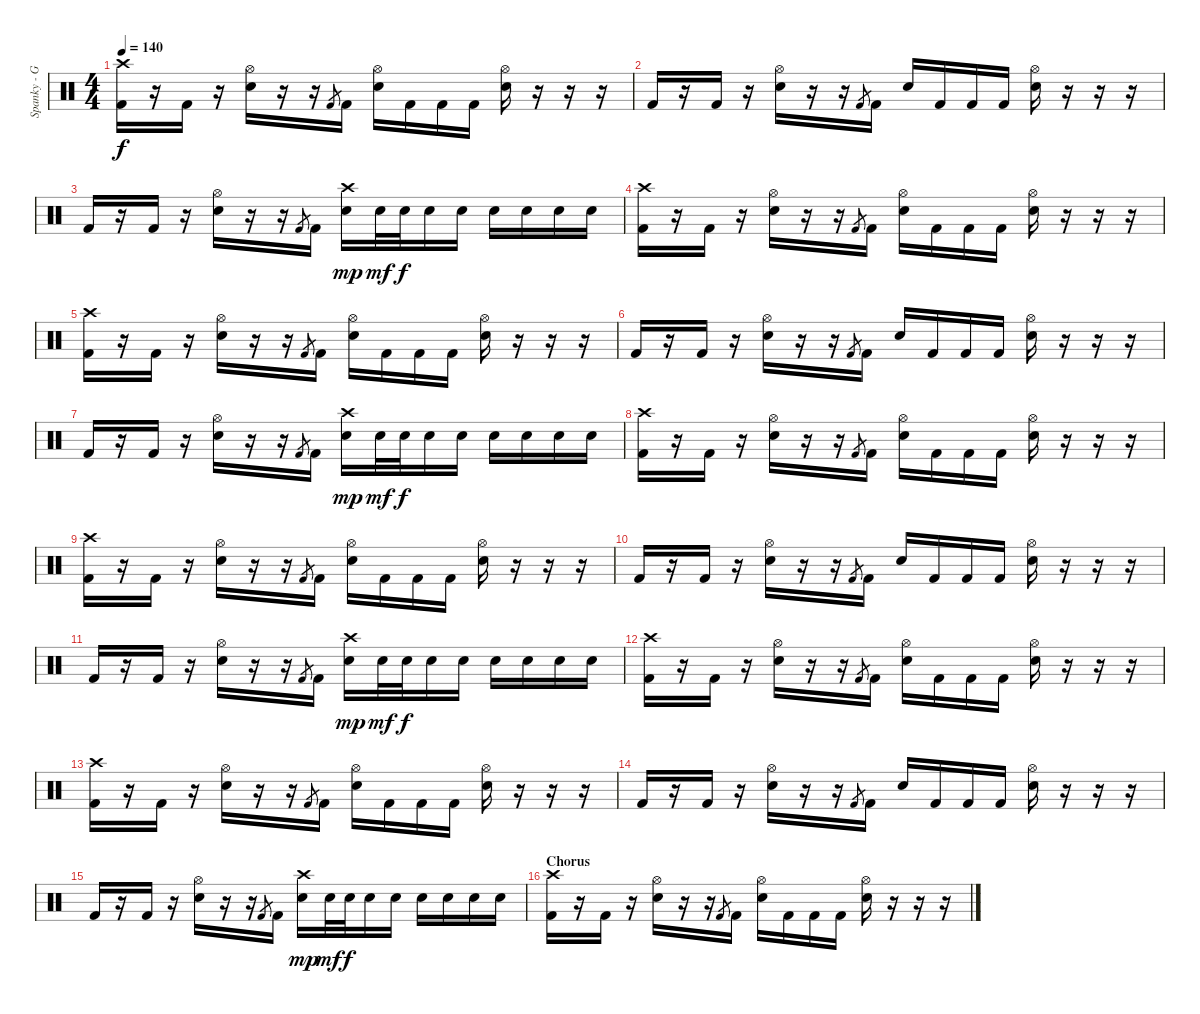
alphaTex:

\track ("Spanky - G (Ex-drummer)" "Spanky - G") {instrument percussion}
\staff {score}
\articulation defaults
\ts (4 4)
\tempo 140
\clef neutral
\ks c
("Crash high (hit)" "Kick (hit) 2").16{dy f} r.16 "Kick (hit) 2".16 r.16 ("Hi-Hat (open)" "Electric Snare (hit)").16 r.16 r.16 "Kick (hit) 2".8{gr} "Kick (hit) 2".16 ("Hi-Hat (open)" "Electric Snare (hit)").16 "Kick (hit) 2".16 "Kick (hit) 2".16 "Kick (hit) 2".16 ("Hi-Hat (open)" "Electric Snare (hit)").16 r.16 r.16 r.16 |
"Kick (hit) 2".16 r.16 "Kick (hit) 2".16 r.16 ("Hi-Hat (open)" "Electric Snare (hit)").16 r.16 r.16 "Kick (hit) 2".8{gr} "Kick (hit) 2".16 "Electric Snare (hit)".16 "Kick (hit) 2".16 "Kick (hit) 2".16 "Kick (hit) 2".16 ("Hi-Hat (open)" "Electric Snare (hit)").16 r.16 r.16 r.16 |
"Kick (hit) 2".16 r.16 "Kick (hit) 2".16 r.16 ("Hi-Hat (open)" "Electric Snare (hit)").16 r.16 r.16 "Kick (hit) 2".8{gr} "Kick (hit) 2".16 ("Crash high (hit)" "Electric Snare (hit)").16{dy mp} "Electric Snare (hit)".32{dy mf} "Electric Snare (hit)".32{dy f} "Electric Snare (hit)".16 "Electric Snare (hit)".16 "Electric Snare (hit)".16 "Electric Snare (hit)".16 "Electric Snare (hit)".16 "Electric Snare (hit)".16 |
("Crash high (hit)" "Kick (hit) 2").16 r.16 "Kick (hit) 2".16 r.16 ("Hi-Hat (open)" "Electric Snare (hit)").16 r.16 r.16 "Kick (hit) 2".8{gr} "Kick (hit) 2".16 ("Hi-Hat (open)" "Electric Snare (hit)").16 "Kick (hit) 2".16 "Kick (hit) 2".16 "Kick (hit) 2".16 ("Hi-Hat (open)" "Electric Snare (hit)").16 r.16 r.16 r.16 |
("Crash high (hit)" "Kick (hit) 2").16 r.16 "Kick (hit) 2".16 r.16 ("Hi-Hat (open)" "Electric Snare (hit)").16 r.16 r.16 "Kick (hit) 2".8{gr} "Kick (hit) 2".16 ("Hi-Hat (open)" "Electric Snare (hit)").16 "Kick (hit) 2".16 "Kick (hit) 2".16 "Kick (hit) 2".16 ("Hi-Hat (open)" "Electric Snare (hit)").16 r.16 r.16 r.16 |
"Kick (hit) 2".16 r.16 "Kick (hit) 2".16 r.16 ("Hi-Hat (open)" "Electric Snare (hit)").16 r.16 r.16 "Kick (hit) 2".8{gr} "Kick (hit) 2".16 "Electric Snare (hit)".16 "Kick (hit) 2".16 "Kick (hit) 2".16 "Kick (hit) 2".16 ("Hi-Hat (open)" "Electric Snare (hit)").16 r.16 r.16 r.16 |
"Kick (hit) 2".16 r.16 "Kick (hit) 2".16 r.16 ("Hi-Hat (open)" "Electric Snare (hit)").16 r.16 r.16 "Kick (hit) 2".8{gr} "Kick (hit) 2".16 ("Crash high (hit)" "Electric Snare (hit)").16{dy mp} "Electric Snare (hit)".32{dy mf} "Electric Snare (hit)".32{dy f} "Electric Snare (hit)".16 "Electric Snare (hit)".16 "Electric Snare (hit)".16 "Electric Snare (hit)".16 "Electric Snare (hit)".16 "Electric Snare (hit)".16 |
("Crash high (hit)" "Kick (hit) 2").16 r.16 "Kick (hit) 2".16 r.16 ("Hi-Hat (open)" "Electric Snare (hit)").16 r.16 r.16 "Kick (hit) 2".8{gr} "Kick (hit) 2".16 ("Hi-Hat (open)" "Electric Snare (hit)").16 "Kick (hit) 2".16 "Kick (hit) 2".16 "Kick (hit) 2".16 ("Hi-Hat (open)" "Electric Snare (hit)").16 r.16 r.16 r.16 |
("Crash high (hit)" "Kick (hit) 2").16 r.16 "Kick (hit) 2".16 r.16 ("Hi-Hat (open)" "Electric Snare (hit)").16 r.16 r.16 "Kick (hit) 2".8{gr} "Kick (hit) 2".16 ("Hi-Hat (open)" "Electric Snare (hit)").16 "Kick (hit) 2".16 "Kick (hit) 2".16 "Kick (hit) 2".16 ("Hi-Hat (open)" "Electric Snare (hit)").16 r.16 r.16 r.16 |
"Kick (hit) 2".16 r.16 "Kick (hit) 2".16 r.16 ("Hi-Hat (open)" "Electric Snare (hit)").16 r.16 r.16 "Kick (hit) 2".8{gr} "Kick (hit) 2".16 "Electric Snare (hit)".16 "Kick (hit) 2".16 "Kick (hit) 2".16 "Kick (hit) 2".16 ("Hi-Hat (open)" "Electric Snare (hit)").16 r.16 r.16 r.16 |
"Kick (hit) 2".16 r.16 "Kick (hit) 2".16 r.16 ("Hi-Hat (open)" "Electric Snare (hit)").16 r.16 r.16 "Kick (hit) 2".8{gr} "Kick (hit) 2".16 ("Crash high (hit)" "Electric Snare (hit)").16{dy mp} "Electric Snare (hit)".32{dy mf} "Electric Snare (hit)".32{dy f} "Electric Snare (hit)".16 "Electric Snare (hit)".16 "Electric Snare (hit)".16 "Electric Snare (hit)".16 "Electric Snare (hit)".16 "Electric Snare (hit)".16 |
("Crash high (hit)" "Kick (hit) 2").16 r.16 "Kick (hit) 2".16 r.16 ("Hi-Hat (open)" "Electric Snare (hit)").16 r.16 r.16 "Kick (hit) 2".8{gr} "Kick (hit) 2".16 ("Hi-Hat (open)" "Electric Snare (hit)").16 "Kick (hit) 2".16 "Kick (hit) 2".16 "Kick (hit) 2".16 ("Hi-Hat (open)" "Electric Snare (hit)").16 r.16 r.16 r.16 |
("Crash high (hit)" "Kick (hit) 2").16 r.16 "Kick (hit) 2".16 r.16 ("Hi-Hat (open)" "Electric Snare (hit)").16 r.16 r.16 "Kick (hit) 2".8{gr} "Kick (hit) 2".16 ("Hi-Hat (open)" "Electric Snare (hit)").16 "Kick (hit) 2".16 "Kick (hit) 2".16 "Kick (hit) 2".16 ("Hi-Hat (open)" "Electric Snare (hit)").16 r.16 r.16 r.16 |
"Kick (hit) 2".16 r.16 "Kick (hit) 2".16 r.16 ("Hi-Hat (open)" "Electric Snare (hit)").16 r.16 r.16 "Kick (hit) 2".8{gr} "Kick (hit) 2".16 "Electric Snare (hit)".16 "Kick (hit) 2".16 "Kick (hit) 2".16 "Kick (hit) 2".16 ("Hi-Hat (open)" "Electric Snare (hit)").16 r.16 r.16 r.16 |
"Kick (hit) 2".16 r.16 "Kick (hit) 2".16 r.16 ("Hi-Hat (open)" "Electric Snare (hit)").16 r.16 r.16 "Kick (hit) 2".8{gr} "Kick (hit) 2".16 ("Crash high (hit)" "Electric Snare (hit)").16{dy mp} "Electric Snare (hit)".32{dy mf} "Electric Snare (hit)".32{dy f} "Electric Snare (hit)".16 "Electric Snare (hit)".16 "Electric Snare (hit)".16 "Electric Snare (hit)".16 "Electric Snare (hit)".16 "Electric Snare (hit)".16 |
\section ("" "Chorus")
("Crash high (hit)" "Kick (hit) 2").16 r.16 "Kick (hit) 2".16 r.16 ("Hi-Hat (open)" "Electric Snare (hit)").16 r.16 r.16 "Kick (hit) 2".8{gr} "Kick (hit) 2".16 ("Hi-Hat (open)" "Electric Snare (hit)").16 "Kick (hit) 2".16 "Kick (hit) 2".16 "Kick (hit) 2".16 ("Hi-Hat (open)" "Electric Snare (hit)").16 r.16 r.16 r.16
